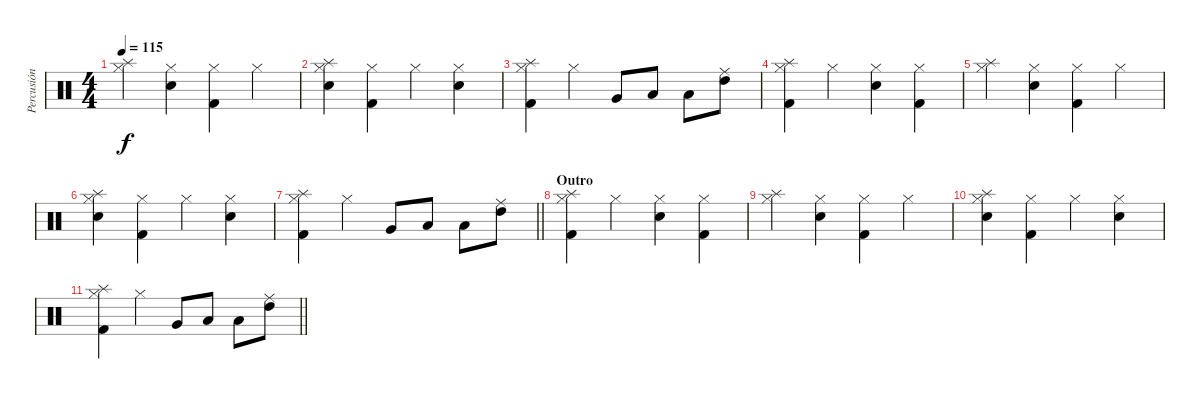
\track ("Percusión" "Percusión") {instrument percussion}
\staff {score}
\articulation defaults
\ts (4 4)
\tempo 115
\clef neutral
\ks c
("Splash (hit)" "Hi-Hat (closed)").4{dy f} ("Snare (hit) 2" "Hi-Hat (closed)").4 ("Hi-Hat (closed)" "Kick (hit) 2").4 "Hi-Hat (closed)".4 |
("Splash (hit)" "Snare (hit) 2" "Hi-Hat (closed)").4 ("Hi-Hat (closed)" "Kick (hit) 2").4 "Hi-Hat (closed)".4 ("Snare (hit) 2" "Hi-Hat (closed)").4 |
("Splash (hit)" "Hi-Hat (closed)" "Kick (hit) 2").4 "Hi-Hat (closed)".4 "Very Low Tom (hit)".8 "Low Floor Tom (hit)".8 "Low Tom (hit)".8 ("High Tom (hit)" "Ride (middle)").8 |
("Splash (hit)" "Hi-Hat (closed)" "Kick (hit) 2").4 "Hi-Hat (closed)".4 ("Snare (hit) 2" "Hi-Hat (closed)").4 ("Hi-Hat (closed)" "Kick (hit) 2").4 |
("Splash (hit)" "Hi-Hat (closed)").4 ("Snare (hit) 2" "Hi-Hat (closed)").4 ("Hi-Hat (closed)" "Kick (hit) 2").4 "Hi-Hat (closed)".4 |
("Splash (hit)" "Snare (hit) 2" "Hi-Hat (closed)").4 ("Hi-Hat (closed)" "Kick (hit) 2").4 "Hi-Hat (closed)".4 ("Snare (hit) 2" "Hi-Hat (closed)").4 |
\barLineRight lightlight
("Splash (hit)" "Hi-Hat (closed)" "Kick (hit) 2").4 "Hi-Hat (closed)".4 "Very Low Tom (hit)".8 "Low Floor Tom (hit)".8 "Low Tom (hit)".8 ("High Tom (hit)" "Ride (middle)").8 |
\section ("" "Outro")
("Splash (hit)" "Hi-Hat (closed)" "Kick (hit) 2").4 "Hi-Hat (closed)".4 ("Snare (hit) 2" "Hi-Hat (closed)").4 ("Hi-Hat (closed)" "Kick (hit) 2").4 |
("Splash (hit)" "Hi-Hat (closed)").4 ("Snare (hit) 2" "Hi-Hat (closed)").4 ("Hi-Hat (closed)" "Kick (hit) 2").4 "Hi-Hat (closed)".4 |
("Splash (hit)" "Snare (hit) 2" "Hi-Hat (closed)").4 ("Hi-Hat (closed)" "Kick (hit) 2").4 "Hi-Hat (closed)".4 ("Snare (hit) 2" "Hi-Hat (closed)").4 |
\barLineRight lightlight
("Splash (hit)" "Hi-Hat (closed)" "Kick (hit) 2").4 "Hi-Hat (closed)".4 "Very Low Tom (hit)".8 "Low Floor Tom (hit)".8 "Low Tom (hit)".8 ("High Tom (hit)" "Ride (middle)").8
